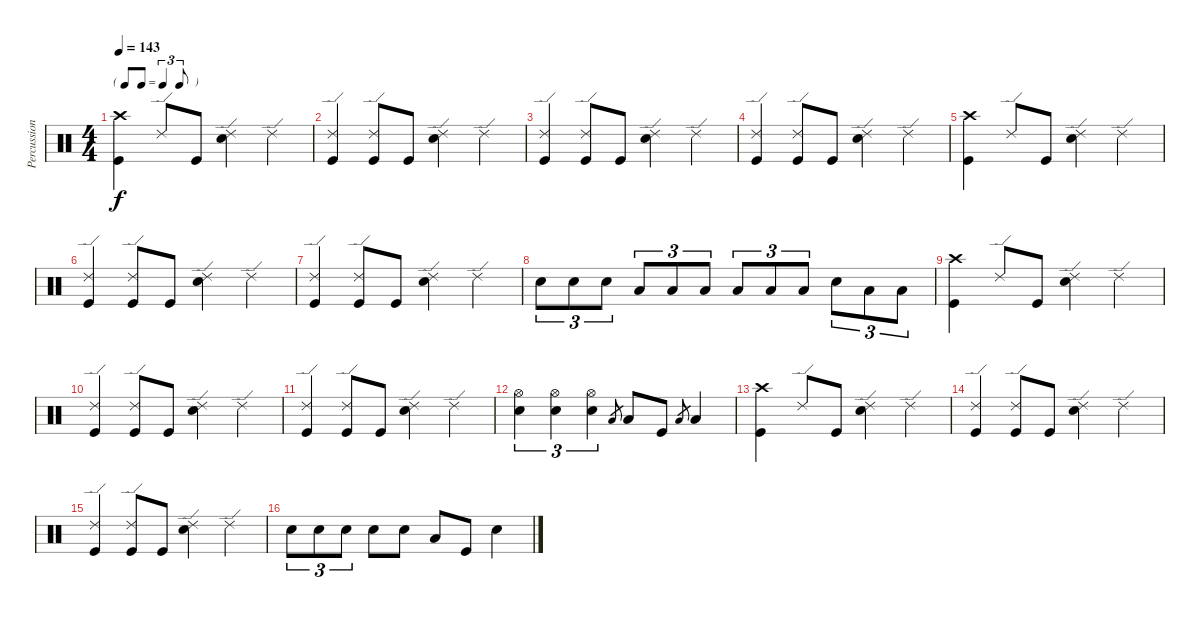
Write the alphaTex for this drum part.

\track ("Percussion" "Percussion") {instrument percussion}
\staff {score}
\articulation defaults
\ts (4 4)
\tf triplet8th
\tempo 143
\clef neutral
\ks c
("Crash high (hit)" "Kick (hit)").4{dy f} "Ride (edge) 2".8 "Kick (hit)".8 ("Ride (edge) 2" "Electric Snare (hit)").4 "Ride (edge) 2".4 |
("Ride (edge) 2" "Kick (hit)").4 ("Ride (edge) 2" "Kick (hit)").8 "Kick (hit)".8 ("Ride (edge) 2" "Electric Snare (hit)").4 "Ride (edge) 2".4 |
("Ride (edge) 2" "Kick (hit)").4 ("Ride (edge) 2" "Kick (hit)").8 "Kick (hit)".8 ("Ride (edge) 2" "Electric Snare (hit)").4 "Ride (edge) 2".4 |
("Ride (edge) 2" "Kick (hit)").4 ("Ride (edge) 2" "Kick (hit)").8 "Kick (hit)".8 ("Ride (edge) 2" "Electric Snare (hit)").4 "Ride (edge) 2".4 |
("Crash high (hit)" "Kick (hit)").4 "Ride (edge) 2".8 "Kick (hit)".8 ("Ride (edge) 2" "Electric Snare (hit)").4 "Ride (edge) 2".4 |
("Ride (edge) 2" "Kick (hit)").4 ("Ride (edge) 2" "Kick (hit)").8 "Kick (hit)".8 ("Ride (edge) 2" "Electric Snare (hit)").4 "Ride (edge) 2".4 |
("Ride (edge) 2" "Kick (hit)").4 ("Ride (edge) 2" "Kick (hit)").8 "Kick (hit)".8 ("Ride (edge) 2" "Electric Snare (hit)").4 "Ride (edge) 2".4 |
"Electric Snare (hit)".8{tu (3 2)} "Electric Snare (hit)".8{tu (3 2)} "Electric Snare (hit)".8{tu (3 2)} "Low Tom (hit)".8{tu (3 2)} "Low Tom (hit)".8{tu (3 2)} "Low Tom (hit)".8{tu (3 2)} "Low Floor Tom (hit)".8{tu (3 2)} "Low Floor Tom (hit)".8{tu (3 2)} "Low Floor Tom (hit)".8{tu (3 2)} "Electric Snare (hit)".8{tu (3 2)} "Low Tom (hit)".8{tu (3 2)} "Low Floor Tom (hit)".8{tu (3 2)} |
("Crash high (hit)" "Kick (hit)").4 "Ride (edge) 2".8 "Kick (hit)".8 ("Ride (edge) 2" "Electric Snare (hit)").4 "Ride (edge) 2".4 |
("Ride (edge) 2" "Kick (hit)").4 ("Ride (edge) 2" "Kick (hit)").8 "Kick (hit)".8 ("Ride (edge) 2" "Electric Snare (hit)").4 "Ride (edge) 2".4 |
("Ride (edge) 2" "Kick (hit)").4 ("Ride (edge) 2" "Kick (hit)").8 "Kick (hit)".8 ("Ride (edge) 2" "Electric Snare (hit)").4 "Ride (edge) 2".4 |
("Hi-Hat (open)" "Electric Snare (hit)").4{tu (3 2)} ("Hi-Hat (open)" "Electric Snare (hit)").4{tu (3 2)} ("Hi-Hat (open)" "Electric Snare (hit)").4{tu (3 2)} "Low Tom (hit)".8{gr} "Low Tom (hit)".8 "Kick (hit)".8 "Low Floor Tom (hit)".8{gr} "Low Floor Tom (hit)".4 |
("Crash high (hit)" "Kick (hit)").4 "Ride (edge) 2".8 "Kick (hit)".8 ("Ride (edge) 2" "Electric Snare (hit)").4 "Ride (edge) 2".4 |
("Ride (edge) 2" "Kick (hit)").4 ("Ride (edge) 2" "Kick (hit)").8 "Kick (hit)".8 ("Ride (edge) 2" "Electric Snare (hit)").4 "Ride (edge) 2".4 |
("Ride (edge) 2" "Kick (hit)").4 ("Ride (edge) 2" "Kick (hit)").8 "Kick (hit)".8 ("Ride (edge) 2" "Electric Snare (hit)").4 "Ride (edge) 2".4 |
"Electric Snare (hit)".8{tu (3 2)} "Electric Snare (hit)".8{tu (3 2)} "Electric Snare (hit)".8{tu (3 2)} "Electric Snare (hit)".8 "Electric Snare (hit)".8 "Low Tom (hit)".8 "Kick (hit)".8 "Electric Snare (hit)".4
